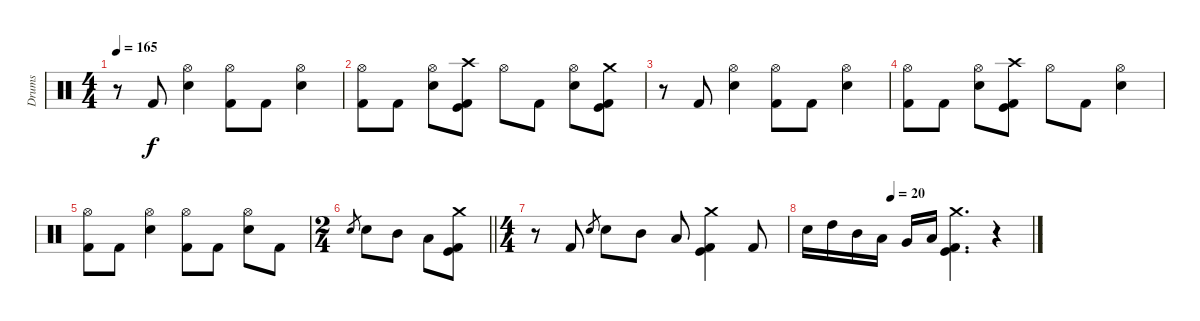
\track ("Drums" "Drums") {instrument percussion}
\staff {score}
\articulation defaults
\ts (4 4)
\tempo 165
\clef neutral
\ks c
r.8{dy f} "Kick (hit) 2".8 ("Hi-Hat (open)" "Electric Snare (hit)").4 ("Hi-Hat (open)" "Kick (hit) 2").8 "Kick (hit) 2".8 ("Hi-Hat (open)" "Electric Snare (hit)").4 |
("Hi-Hat (open)" "Kick (hit) 2").8 "Kick (hit) 2".8 ("Hi-Hat (open)" "Electric Snare (hit)").8 ("Crash high (hit)" "Kick (hit) 2" "Kick (hit)").8 "Hi-Hat (open)".8 "Kick (hit) 2".8 ("Hi-Hat (open)" "Electric Snare (hit)").8 ("Crash medium (hit)" "Kick (hit) 2" "Kick (hit)").8 |
r.8 "Kick (hit) 2".8 ("Hi-Hat (open)" "Electric Snare (hit)").4 ("Hi-Hat (open)" "Kick (hit) 2").8 "Kick (hit) 2".8 ("Hi-Hat (open)" "Electric Snare (hit)").4 |
("Hi-Hat (open)" "Kick (hit) 2").8 "Kick (hit) 2".8 ("Hi-Hat (open)" "Electric Snare (hit)").8 ("Crash high (hit)" "Kick (hit) 2" "Kick (hit)").8 "Hi-Hat (open)".8 "Kick (hit) 2".8 ("Hi-Hat (open)" "Electric Snare (hit)").4 |
("Hi-Hat (open)" "Kick (hit) 2").8 "Kick (hit) 2".8 ("Hi-Hat (open)" "Electric Snare (hit)").4 ("Hi-Hat (open)" "Kick (hit) 2").8 "Kick (hit) 2".8 ("Hi-Hat (open)" "Electric Snare (hit)").8 "Kick (hit) 2".8 |
\ts (2 4)
\barLineRight lightlight "Electric Snare (hit)".8{gr} "Electric Snare (hit)".8 "Mid Tom (hit)".8 "Low Tom (hit)".8
("Crash medium (hit)" "Kick (hit) 2" "Kick (hit)").8 |
\ts (4 4)
r.8 "Kick (hit) 2".8 "Electric Snare (hit)".8{gr} "Electric Snare (hit)".8 "Mid Tom (hit)".8 "Low Tom (hit)".8 ("Crash medium (hit)" "Kick (hit) 2" "Kick (hit)").4 "Kick (hit) 2".8 |
\tempo (20 0.375)
"Electric Snare (hit)".16 "High Tom (hit)".16 "Mid Tom (hit)".16 "Low Tom (hit)".16 "Very Low Tom (hit)".16 "Low Floor Tom (hit)".16 ("Crash medium (hit)" "Kick (hit) 2" "Kick (hit)").4{d} r.4
